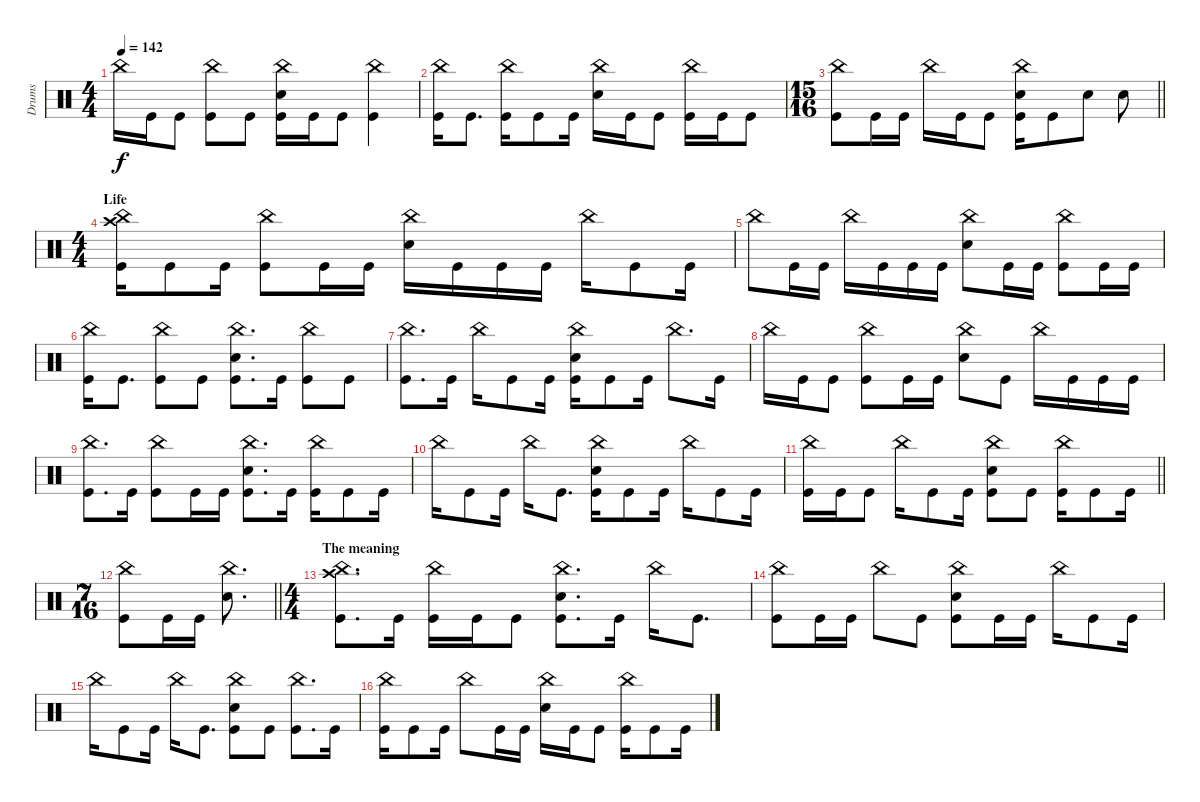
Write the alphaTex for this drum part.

\track ("Drums" "Drums") {instrument percussion}
\staff
\articulation defaults
\ts (4 4)
\tempo 142
\clef neutral
\ks c "China (hit)".16{dy f} "Kick (hit)".16 "Kick (hit)".8
("China (hit)" "Kick (hit)").8 "Kick (hit)".8 ("China (hit)" "Electric Snare (hit)" "Kick (hit)").16 "Kick (hit)".16 "Kick (hit)".8 ("China (hit)" "Kick (hit)").4 |
("China (hit)" "Kick (hit)").16 "Kick (hit)".8{d} ("China (hit)" "Kick (hit)").16 "Kick (hit)".8 "Kick (hit)".16 ("China (hit)" "Electric Snare (hit)").16 "Kick (hit)".16 "Kick (hit)".8 ("China (hit)" "Kick (hit)").16 "Kick (hit)".16 "Kick (hit)".8 |
\ts (15 16)
\barLineRight lightlight
("China (hit)" "Kick (hit)").8 "Kick (hit)".16 "Kick (hit)".16 "China (hit)".16 "Kick (hit)".16 "Kick (hit)".8 ("China (hit)" "Electric Snare (hit)" "Kick (hit)").16 "Kick (hit)".8 "Electric Snare (hit)".8 "Electric Snare (hit)".8 |
\ts (4 4)
\section ("" "Life")
("China (hit)" "Crash high (hit)" "Kick (hit)").16 "Kick (hit)".8 "Kick (hit)".16 ("China (hit)" "Kick (hit)").8 "Kick (hit)".16 "Kick (hit)".16 ("China (hit)" "Electric Snare (hit)").16 "Kick (hit)".16 "Kick (hit)".16 "Kick (hit)".16 "China (hit)".16 "Kick (hit)".8 "Kick (hit)".16 |
"China (hit)".8 "Kick (hit)".16 "Kick (hit)".16 "China (hit)".16 "Kick (hit)".16 "Kick (hit)".16 "Kick (hit)".16 ("China (hit)" "Electric Snare (hit)").8 "Kick (hit)".16 "Kick (hit)".16 ("China (hit)" "Kick (hit)").8 "Kick (hit)".16 "Kick (hit)".16 |
("China (hit)" "Kick (hit)").16 "Kick (hit)".8{d} ("China (hit)" "Kick (hit)").8 "Kick (hit)".8 ("China (hit)" "Electric Snare (hit)" "Kick (hit)").8{d} "Kick (hit)".16 ("China (hit)" "Kick (hit)").8 "Kick (hit)".8 |
("China (hit)" "Kick (hit)").8{d} "Kick (hit)".16 "China (hit)".16 "Kick (hit)".8 "Kick (hit)".16 ("China (hit)" "Electric Snare (hit)" "Kick (hit)").16 "Kick (hit)".8 "Kick (hit)".16 "China (hit)".8{d} "Kick (hit)".16 |
"China (hit)".16 "Kick (hit)".16 "Kick (hit)".8 ("China (hit)" "Kick (hit)").8 "Kick (hit)".16 "Kick (hit)".16 ("China (hit)" "Electric Snare (hit)").8 "Kick (hit)".8 "China (hit)".16 "Kick (hit)".16 "Kick (hit)".16 "Kick (hit)".16 |
("China (hit)" "Kick (hit)").8{d} "Kick (hit)".16 ("China (hit)" "Kick (hit)").8 "Kick (hit)".16 "Kick (hit)".16 ("China (hit)" "Electric Snare (hit)" "Kick (hit)").8{d} "Kick (hit)".16 ("China (hit)" "Kick (hit)").16 "Kick (hit)".8 "Kick (hit)".16 |
"China (hit)".16 "Kick (hit)".8 "Kick (hit)".16 "China (hit)".16 "Kick (hit)".8{d} ("China (hit)" "Electric Snare (hit)" "Kick (hit)").16 "Kick (hit)".8 "Kick (hit)".16 "China (hit)".16 "Kick (hit)".8 "Kick (hit)".16 |
\barLineRight lightlight
("China (hit)" "Kick (hit)").16 "Kick (hit)".16 "Kick (hit)".8 "China (hit)".16 "Kick (hit)".8 "Kick (hit)".16 ("China (hit)" "Electric Snare (hit)" "Kick (hit)").8 "Kick (hit)".8 ("China (hit)" "Kick (hit)").16 "Kick (hit)".8 "Kick (hit)".16 |
\ts (7 16)
\barLineRight lightlight
("China (hit)" "Kick (hit)").8 "Kick (hit)".16 "Kick (hit)".16 ("China (hit)" "Electric Snare (hit)").8{d} |
\ts (4 4)
\section ("" "The meaning")
("China (hit)" "Crash high (hit)" "Kick (hit)").8{d} "Kick (hit)".16 ("China (hit)" "Kick (hit)").16 "Kick (hit)".16 "Kick (hit)".8 ("China (hit)" "Electric Snare (hit)" "Kick (hit)").8{d} "Kick (hit)".16 "China (hit)".16 "Kick (hit)".8{d} |
("China (hit)" "Kick (hit)").8 "Kick (hit)".16 "Kick (hit)".16 "China (hit)".8 "Kick (hit)".8 ("China (hit)" "Electric Snare (hit)" "Kick (hit)").8 "Kick (hit)".16 "Kick (hit)".16 "China (hit)".16 "Kick (hit)".8 "Kick (hit)".16 |
"China (hit)".16 "Kick (hit)".8 "Kick (hit)".16 "China (hit)".16 "Kick (hit)".8{d} ("China (hit)" "Electric Snare (hit)" "Kick (hit)").8 "Kick (hit)".8 ("China (hit)" "Kick (hit)").8{d} "Kick (hit)".16 |
("China (hit)" "Kick (hit)").16 "Kick (hit)".8 "Kick (hit)".16 "China (hit)".8 "Kick (hit)".16 "Kick (hit)".16 ("China (hit)" "Electric Snare (hit)").16 "Kick (hit)".16 "Kick (hit)".8 ("China (hit)" "Kick (hit)").16 "Kick (hit)".8 "Kick (hit)".16
